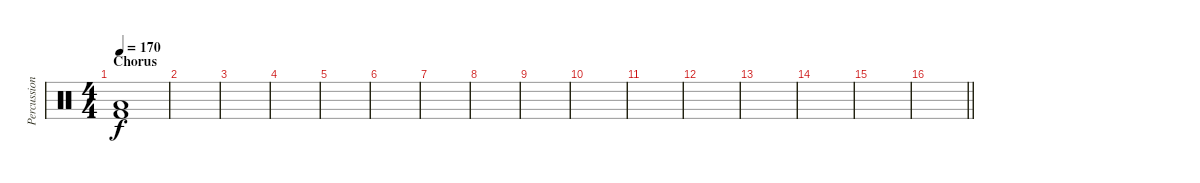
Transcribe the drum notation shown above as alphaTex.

\track ("Percussion" "Percussion") {instrument percussion}
\staff {score}
\articulation defaults
\ts (4 4)
\section ("" "Chorus")
\tempo 170
\clef neutral
\ks c
("Low Floor Tom (hit)" "Kick (hit) 2").1{dy f} |
|
|
|
|
|
|
|
|
|
|
|
|
|
|
\barLineRight lightlight
